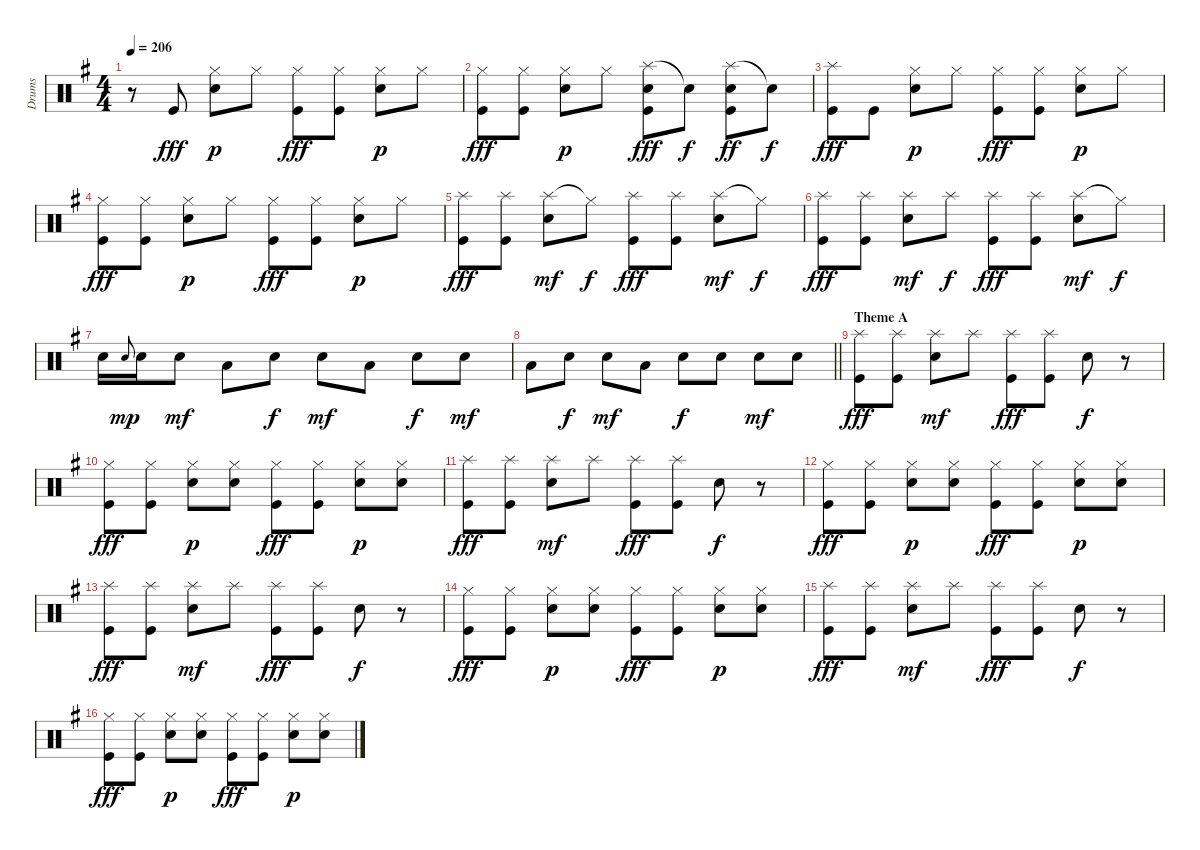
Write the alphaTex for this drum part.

\track ("Drums" "Drums") {instrument percussion}
\staff {score}
\articulation defaults
\ts (4 4)
\tempo 206
\clef neutral
\ks g
r.8{dy ff} "Kick (hit)".8{dy fff} ("Hi-Hat (closed)" "Snare (hit) 2").8{dy p} "Hi-Hat (closed)".8 ("Hi-Hat (closed)" "Kick (hit)").8{dy fff} ("Hi-Hat (closed)" "Kick (hit)").8 ("Hi-Hat (closed)" "Snare (hit) 2").8{dy p} "Hi-Hat (closed)".8 |
("Hi-Hat (closed)" "Kick (hit)").8{dy fff} ("Hi-Hat (closed)" "Kick (hit)").8 ("Hi-Hat (closed)" "Snare (hit) 2").8{dy p} "Hi-Hat (closed)".8 ("Splash (hit)" "Snare (hit) 2" "Kick (hit)").8{dy fff} "Snare (hit)"{t}.8{dy f} ("Splash (hit)" "Snare (hit) 2" "Kick (hit)").8{dy ff} "Snare (hit)"{t}.8{dy f} |
("Splash (hit)" "Kick (hit)").8{dy fff} "Kick (hit)".8 ("Hi-Hat (closed)" "Snare (hit) 2").8{dy p} "Hi-Hat (closed)".8 ("Hi-Hat (closed)" "Kick (hit)").8{dy fff} ("Hi-Hat (closed)" "Kick (hit)").8 ("Hi-Hat (closed)" "Snare (hit) 2").8{dy p} "Hi-Hat (closed)".8 |
("Hi-Hat (closed)" "Kick (hit)").8{dy fff} ("Hi-Hat (closed)" "Kick (hit)").8 ("Hi-Hat (closed)" "Snare (hit) 2").8{dy p} "Hi-Hat (closed)".8 ("Hi-Hat (closed)" "Kick (hit)").8{dy fff} ("Hi-Hat (closed)" "Kick (hit)").8 ("Hi-Hat (closed)" "Snare (hit) 2").8{dy p} "Hi-Hat (closed)".8 |
("Splash (hit)" "Kick (hit)").8{dy fff} ("Splash (hit)" "Kick (hit)").8 ("Splash (hit)" "Snare (hit) 2").8{dy mf} "Hi-Hat (closed)"{t}.8{dy f} ("Splash (hit)" "Kick (hit)").8{dy fff} ("Splash (hit)" "Kick (hit)").8 ("Splash (hit)" "Snare (hit) 2").8{dy mf} "Hi-Hat (closed)"{t}.8{dy f} |
("Splash (hit)" "Kick (hit)").8{dy fff} ("Splash (hit)" "Kick (hit)").8 ("Splash (hit)" "Snare (hit) 2").8{dy mf} "Splash (hit)".8{dy f} ("Splash (hit)" "Kick (hit)").8{dy fff} ("Splash (hit)" "Kick (hit)").8 ("Splash (hit)" "Snare (hit) 2").8{dy mf} "Hi-Hat (closed)"{t}.8{dy f} |
"Snare (hit) 2".16 "Snare (hit) 2".8{gr onbeat dy mp} "Snare (hit) 2".16 "Snare (hit) 2".8{dy mf} "Low Tom (hit)".8 "Snare (hit) 2".8{dy f} "Snare (hit) 2".8{dy mf} "Low Tom (hit)".8 "Snare (hit) 2".8{dy f} "Snare (hit) 2".8{dy mf} |
\barLineRight lightlight "Low Tom (hit)".8 "Snare (hit) 2".8{dy f} "Snare (hit) 2".8{dy mf} "Low Tom (hit)".8 "Snare (hit) 2".8{dy f} "Snare (hit) 2".8 "Snare (hit) 2".8{dy mf} "Snare (hit) 2".8
|
\section ("" "Theme A")
("Splash (hit)" "Kick (hit)").8{dy fff} ("Splash (hit)" "Kick (hit)").8 ("Splash (hit)" "Snare (hit) 2").8{dy mf} "Splash (hit)".8 ("Splash (hit)" "Kick (hit)").8{dy fff} ("Splash (hit)" "Kick (hit)").8 "Snare (hit) 2".8{dy f} r.8 |
("Hi-Hat (closed)" "Kick (hit)").8{dy fff} ("Hi-Hat (closed)" "Kick (hit)").8 ("Hi-Hat (closed)" "Snare (hit) 2").8{dy p} ("Hi-Hat (closed)" "Snare (hit) 2").8 ("Hi-Hat (closed)" "Kick (hit)").8{dy fff} ("Hi-Hat (closed)" "Kick (hit)").8 ("Hi-Hat (closed)" "Snare (hit) 2").8{dy p} ("Hi-Hat (closed)" "Snare (hit) 2").8 |
("Splash (hit)" "Kick (hit)").8{dy fff} ("Splash (hit)" "Kick (hit)").8 ("Splash (hit)" "Snare (hit) 2").8{dy mf} "Splash (hit)".8 ("Splash (hit)" "Kick (hit)").8{dy fff} ("Splash (hit)" "Kick (hit)").8 "Snare (hit) 2".8{dy f} r.8 |
("Hi-Hat (closed)" "Kick (hit)").8{dy fff} ("Hi-Hat (closed)" "Kick (hit)").8 ("Hi-Hat (closed)" "Snare (hit) 2").8{dy p} ("Hi-Hat (closed)" "Snare (hit) 2").8 ("Hi-Hat (closed)" "Kick (hit)").8{dy fff} ("Hi-Hat (closed)" "Kick (hit)").8 ("Hi-Hat (closed)" "Snare (hit) 2").8{dy p} ("Hi-Hat (closed)" "Snare (hit) 2").8 |
("Splash (hit)" "Kick (hit)").8{dy fff} ("Splash (hit)" "Kick (hit)").8 ("Splash (hit)" "Snare (hit) 2").8{dy mf} "Splash (hit)".8 ("Splash (hit)" "Kick (hit)").8{dy fff} ("Splash (hit)" "Kick (hit)").8 "Snare (hit) 2".8{dy f} r.8 |
("Hi-Hat (closed)" "Kick (hit)").8{dy fff} ("Hi-Hat (closed)" "Kick (hit)").8 ("Hi-Hat (closed)" "Snare (hit) 2").8{dy p} ("Hi-Hat (closed)" "Snare (hit) 2").8 ("Hi-Hat (closed)" "Kick (hit)").8{dy fff} ("Hi-Hat (closed)" "Kick (hit)").8 ("Hi-Hat (closed)" "Snare (hit) 2").8{dy p} ("Hi-Hat (closed)" "Snare (hit) 2").8 |
("Splash (hit)" "Kick (hit)").8{dy fff} ("Splash (hit)" "Kick (hit)").8 ("Splash (hit)" "Snare (hit) 2").8{dy mf} "Splash (hit)".8 ("Splash (hit)" "Kick (hit)").8{dy fff} ("Splash (hit)" "Kick (hit)").8 "Snare (hit) 2".8{dy f} r.8 |
("Hi-Hat (closed)" "Kick (hit)").8{dy fff} ("Hi-Hat (closed)" "Kick (hit)").8 ("Hi-Hat (closed)" "Snare (hit) 2").8{dy p} ("Hi-Hat (closed)" "Snare (hit) 2").8 ("Hi-Hat (closed)" "Kick (hit)").8{dy fff} ("Hi-Hat (closed)" "Kick (hit)").8 ("Hi-Hat (closed)" "Snare (hit) 2").8{dy p} ("Hi-Hat (closed)" "Snare (hit) 2").8
